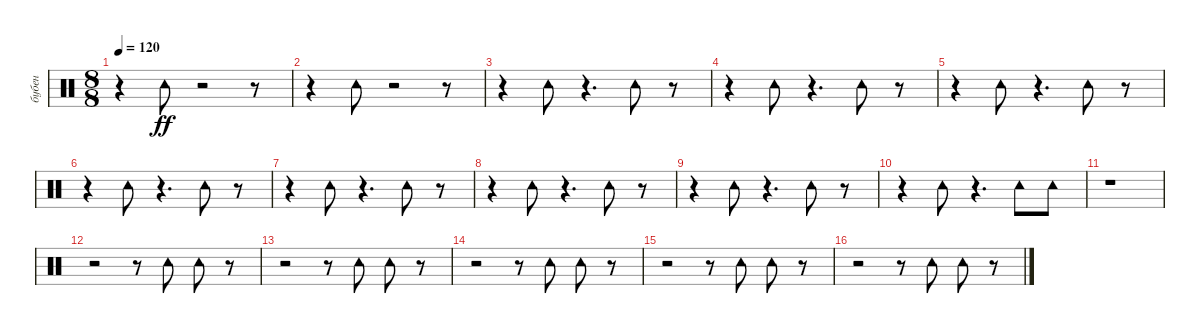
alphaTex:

\track ("бубен" "бубен") {instrument percussion}
\staff {score}
\articulation defaults
\ts (8 8)
\tempo 120
\clef neutral
\ks c
r.4{dy ff} "Tambourine (hit)".8 r.2 r.8 |
r.4 "Tambourine (hit)".8 r.2 r.8 |
r.4 "Tambourine (hit)".8 r.4{d} "Tambourine (hit)".8 r.8 |
r.4 "Tambourine (hit)".8 r.4{d} "Tambourine (hit)".8 r.8 |
r.4 "Tambourine (hit)".8 r.4{d} "Tambourine (hit)".8 r.8 |
r.4 "Tambourine (hit)".8 r.4{d} "Tambourine (hit)".8 r.8 |
r.4 "Tambourine (hit)".8 r.4{d} "Tambourine (hit)".8 r.8 |
r.4 "Tambourine (hit)".8 r.4{d} "Tambourine (hit)".8 r.8 |
r.4 "Tambourine (hit)".8 r.4{d} "Tambourine (hit)".8 r.8 |
r.4 "Tambourine (hit)".8 r.4{d} "Tambourine (hit)".8 "Tambourine (hit)".8 |
r.1 |
r.2 r.8 "Tambourine (hit)".8 "Tambourine (hit)".8 r.8 |
r.2 r.8 "Tambourine (hit)".8 "Tambourine (hit)".8 r.8 |
r.2 r.8 "Tambourine (hit)".8 "Tambourine (hit)".8 r.8 |
r.2 r.8 "Tambourine (hit)".8 "Tambourine (hit)".8 r.8 |
r.2 r.8 "Tambourine (hit)".8 "Tambourine (hit)".8 r.8
